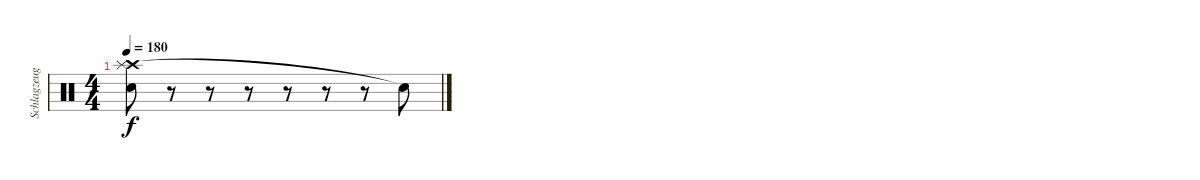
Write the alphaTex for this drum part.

\track ("Schlagzeug" "Schlagzeug") {instrument percussion}
\staff {score}
\articulation defaults
\ts (4 4)
\tempo 180
\clef neutral
\ks c
("Crash high (hit)" "Splash (hit)" "Electric Snare (hit)").8{dy f} r.8 r.8 r.8 r.8 r.8 r.8 "Snare (hit)"{t}.8
